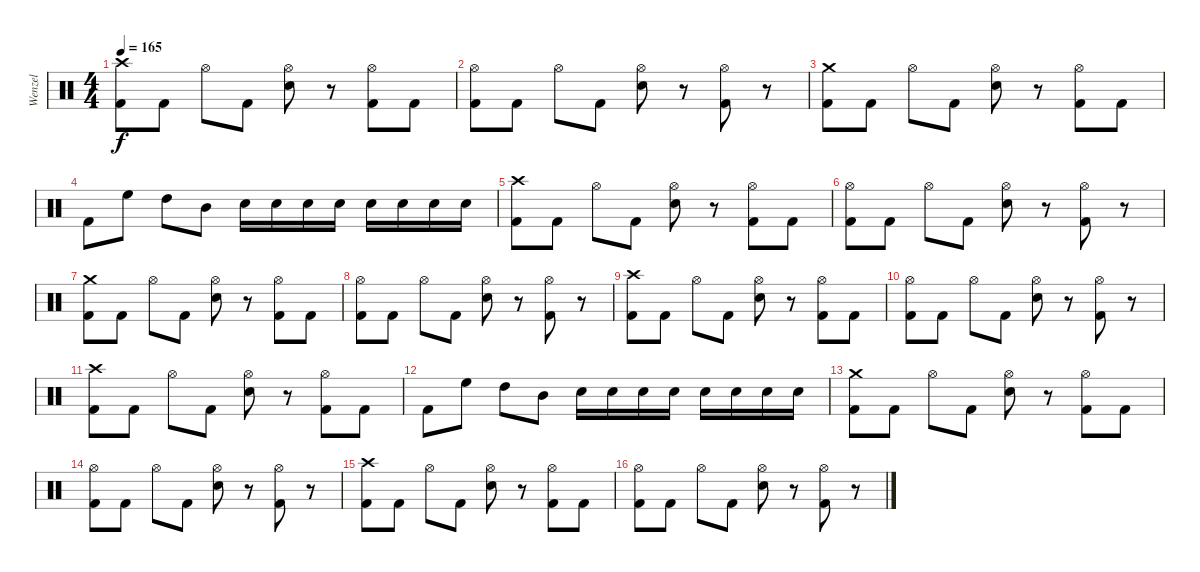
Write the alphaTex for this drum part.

\track ("Wenzel" "Wenzel") {instrument percussion}
\staff {score}
\articulation defaults
\ts (4 4)
\tempo 165
\clef neutral
\ks c
("Crash high (hit)" "Kick (hit) 2").8{dy f} "Kick (hit) 2".8 "Hi-Hat (open)".8 "Kick (hit) 2".8 ("Hi-Hat (open)" "Snare (hit) 2").8 r.8 ("Hi-Hat (open)" "Kick (hit) 2").8 "Kick (hit) 2".8 |
("Hi-Hat (open)" "Kick (hit) 2").8 "Kick (hit) 2".8 "Hi-Hat (open)".8 "Kick (hit) 2".8 ("Hi-Hat (open)" "Snare (hit) 2").8 r.8 ("Hi-Hat (open)" "Kick (hit) 2").8 r.8 |
("Crash medium (hit)" "Kick (hit) 2").8 "Kick (hit) 2".8 "Hi-Hat (open)".8 "Kick (hit) 2".8 ("Hi-Hat (open)" "Snare (hit) 2").8 r.8 ("Hi-Hat (open)" "Kick (hit) 2").8 "Kick (hit) 2".8 |
"Kick (hit) 2".8 "High Floor Tom (hit)".8 "High Tom (hit)".8 "Mid Tom (hit)".8 "Snare (hit) 2".16 "Snare (hit) 2".16 "Snare (hit) 2".16 "Snare (hit) 2".16 "Snare (hit) 2".16 "Snare (hit) 2".16 "Snare (hit) 2".16 "Snare (hit) 2".16 |
("Crash high (hit)" "Kick (hit) 2").8 "Kick (hit) 2".8 "Hi-Hat (open)".8 "Kick (hit) 2".8 ("Hi-Hat (open)" "Snare (hit) 2").8 r.8 ("Hi-Hat (open)" "Kick (hit) 2").8 "Kick (hit) 2".8 |
("Hi-Hat (open)" "Kick (hit) 2").8 "Kick (hit) 2".8 "Hi-Hat (open)".8 "Kick (hit) 2".8 ("Hi-Hat (open)" "Snare (hit) 2").8 r.8 ("Hi-Hat (open)" "Kick (hit) 2").8 r.8 |
("Crash medium (hit)" "Kick (hit) 2").8 "Kick (hit) 2".8 "Hi-Hat (open)".8 "Kick (hit) 2".8 ("Hi-Hat (open)" "Snare (hit) 2").8 r.8 ("Hi-Hat (open)" "Kick (hit) 2").8 "Kick (hit) 2".8 |
("Hi-Hat (open)" "Kick (hit) 2").8 "Kick (hit) 2".8 "Hi-Hat (open)".8 "Kick (hit) 2".8 ("Hi-Hat (open)" "Snare (hit) 2").8 r.8 ("Hi-Hat (open)" "Kick (hit) 2").8 r.8 |
("Crash high (hit)" "Kick (hit) 2").8 "Kick (hit) 2".8 "Hi-Hat (open)".8 "Kick (hit) 2".8 ("Hi-Hat (open)" "Snare (hit) 2").8 r.8 ("Hi-Hat (open)" "Kick (hit) 2").8 "Kick (hit) 2".8 |
("Hi-Hat (open)" "Kick (hit) 2").8 "Kick (hit) 2".8 "Hi-Hat (open)".8 "Kick (hit) 2".8 ("Hi-Hat (open)" "Snare (hit) 2").8 r.8 ("Hi-Hat (open)" "Kick (hit) 2").8 r.8 |
("Crash high (hit)" "Kick (hit) 2").8 "Kick (hit) 2".8 "Hi-Hat (open)".8 "Kick (hit) 2".8 ("Hi-Hat (open)" "Snare (hit) 2").8 r.8 ("Hi-Hat (open)" "Kick (hit) 2").8 "Kick (hit) 2".8 |
"Kick (hit) 2".8 "High Floor Tom (hit)".8 "High Tom (hit)".8 "Mid Tom (hit)".8 "Snare (hit) 2".16 "Snare (hit) 2".16 "Snare (hit) 2".16 "Snare (hit) 2".16 "Snare (hit) 2".16 "Snare (hit) 2".16 "Snare (hit) 2".16 "Snare (hit) 2".16 |
("Crash medium (hit)" "Kick (hit) 2").8 "Kick (hit) 2".8 "Hi-Hat (open)".8 "Kick (hit) 2".8 ("Hi-Hat (open)" "Snare (hit) 2").8 r.8 ("Hi-Hat (open)" "Kick (hit) 2").8 "Kick (hit) 2".8 |
("Hi-Hat (open)" "Kick (hit) 2").8 "Kick (hit) 2".8 "Hi-Hat (open)".8 "Kick (hit) 2".8 ("Hi-Hat (open)" "Snare (hit) 2").8 r.8 ("Hi-Hat (open)" "Kick (hit) 2").8 r.8 |
("Crash high (hit)" "Kick (hit) 2").8 "Kick (hit) 2".8 "Hi-Hat (open)".8 "Kick (hit) 2".8 ("Hi-Hat (open)" "Snare (hit) 2").8 r.8 ("Hi-Hat (open)" "Kick (hit) 2").8 "Kick (hit) 2".8 |
("Hi-Hat (open)" "Kick (hit) 2").8 "Kick (hit) 2".8 "Hi-Hat (open)".8 "Kick (hit) 2".8 ("Hi-Hat (open)" "Snare (hit) 2").8 r.8 ("Hi-Hat (open)" "Kick (hit) 2").8 r.8
